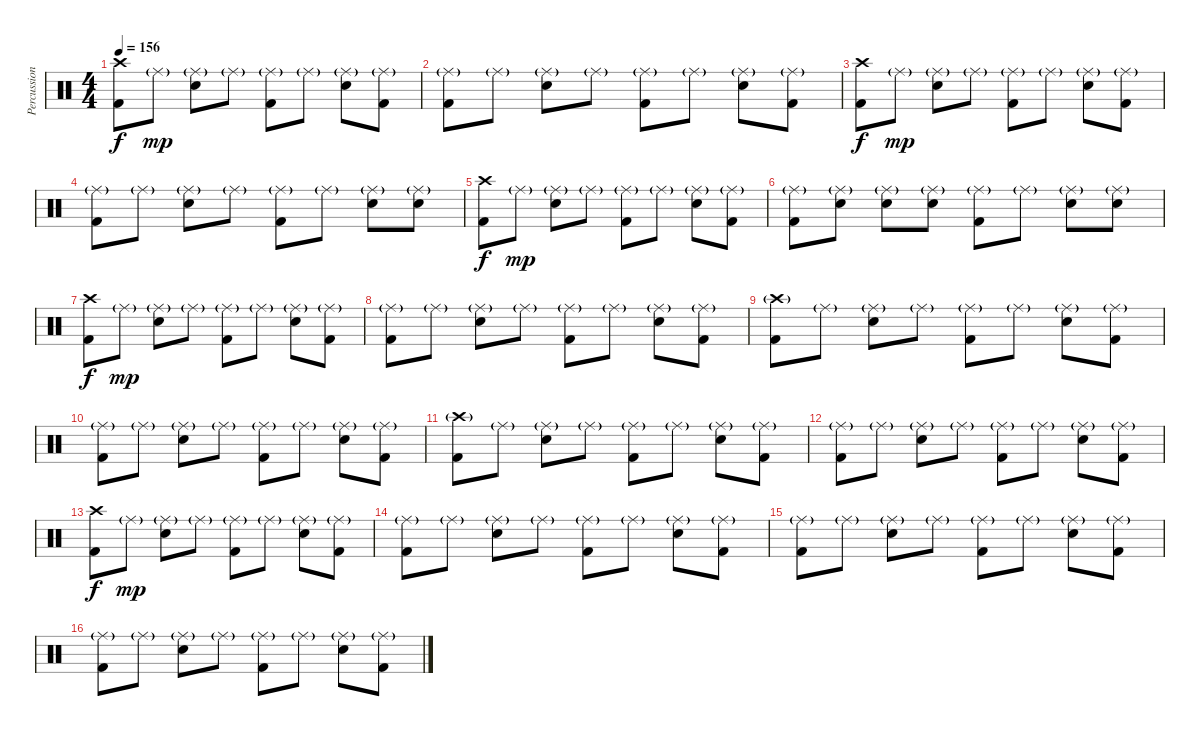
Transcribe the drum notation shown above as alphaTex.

\track ("Percussion" "Percussion") {instrument percussion}
\staff {score}
\articulation defaults
\ts (4 4)
\tempo 156
\clef neutral
\ks c
("Crash high (hit)" "Kick (hit) 2").8{dy f} "Ride (middle)"{g}.8{dy mp} ("Ride (middle)"{g} "Electric Snare (hit)").8 "Ride (middle)"{g}.8 ("Ride (middle)"{g} "Kick (hit) 2").8 "Ride (middle)"{g}.8 ("Ride (middle)"{g} "Electric Snare (hit)").8 ("Ride (middle)"{g} "Kick (hit) 2").8 |
("Ride (middle)"{g} "Kick (hit) 2").8 "Ride (middle)"{g}.8 ("Ride (middle)"{g} "Electric Snare (hit)").8 "Ride (middle)"{g}.8 ("Ride (middle)"{g} "Kick (hit) 2").8 "Ride (middle)"{g}.8 ("Ride (middle)"{g} "Electric Snare (hit)").8 ("Ride (middle)"{g} "Kick (hit) 2").8 |
("Crash high (hit)" "Kick (hit) 2").8{dy f} "Ride (middle)"{g}.8{dy mp} ("Ride (middle)"{g} "Electric Snare (hit)").8 "Ride (middle)"{g}.8 ("Ride (middle)"{g} "Kick (hit) 2").8 "Ride (middle)"{g}.8 ("Ride (middle)"{g} "Electric Snare (hit)").8 ("Ride (middle)"{g} "Kick (hit) 2").8 |
("Ride (middle)"{g} "Kick (hit) 2").8 "Ride (middle)"{g}.8 ("Ride (middle)"{g} "Electric Snare (hit)").8 "Ride (middle)"{g}.8 ("Ride (middle)"{g} "Kick (hit) 2").8 "Ride (middle)"{g}.8 ("Ride (middle)"{g} "Electric Snare (hit)").8 ("Ride (middle)"{g} "Electric Snare (hit)").8 |
("Crash high (hit)" "Kick (hit) 2").8{dy f} "Ride (middle)"{g}.8{dy mp} ("Ride (middle)"{g} "Electric Snare (hit)").8 "Ride (middle)"{g}.8 ("Ride (middle)"{g} "Kick (hit) 2").8 "Ride (middle)"{g}.8 ("Ride (middle)"{g} "Electric Snare (hit)").8 ("Ride (middle)"{g} "Kick (hit) 2").8 |
("Ride (middle)"{g} "Kick (hit) 2").8 ("Ride (middle)"{g} "Electric Snare (hit)").8 ("Ride (middle)"{g} "Electric Snare (hit)").8 ("Ride (middle)"{g} "Electric Snare (hit)").8 ("Ride (middle)"{g} "Kick (hit) 2").8 "Ride (middle)"{g}.8 ("Ride (middle)"{g} "Electric Snare (hit)").8 ("Ride (middle)"{g} "Electric Snare (hit)").8 |
("Crash high (hit)" "Kick (hit) 2").8{dy f} "Ride (middle)"{g}.8{dy mp} ("Ride (middle)"{g} "Electric Snare (hit)").8 "Ride (middle)"{g}.8 ("Ride (middle)"{g} "Kick (hit) 2").8 "Ride (middle)"{g}.8 ("Ride (middle)"{g} "Electric Snare (hit)").8 ("Ride (middle)"{g} "Kick (hit) 2").8 |
("Ride (middle)"{g} "Kick (hit) 2").8 "Ride (middle)"{g}.8 ("Ride (middle)"{g} "Electric Snare (hit)").8 "Ride (middle)"{g}.8 ("Ride (middle)"{g} "Kick (hit) 2").8 "Ride (middle)"{g}.8 ("Ride (middle)"{g} "Electric Snare (hit)").8 ("Ride (middle)"{g} "Kick (hit) 2").8 |
("Crash high (hit)"{g} "Kick (hit) 2").8 "Ride (middle)"{g}.8 ("Ride (middle)"{g} "Electric Snare (hit)").8 "Ride (middle)"{g}.8 ("Ride (middle)"{g} "Kick (hit) 2").8 "Ride (middle)"{g}.8 ("Ride (middle)"{g} "Electric Snare (hit)").8 ("Ride (middle)"{g} "Kick (hit) 2").8 |
("Ride (middle)"{g} "Kick (hit) 2").8 "Ride (middle)"{g}.8 ("Ride (middle)"{g} "Electric Snare (hit)").8 "Ride (middle)"{g}.8 ("Ride (middle)"{g} "Kick (hit) 2").8 "Ride (middle)"{g}.8 ("Ride (middle)"{g} "Electric Snare (hit)").8 ("Ride (middle)"{g} "Kick (hit) 2").8 |
("Crash high (hit)"{g} "Kick (hit) 2").8 "Ride (middle)"{g}.8 ("Ride (middle)"{g} "Electric Snare (hit)").8 "Ride (middle)"{g}.8 ("Ride (middle)"{g} "Kick (hit) 2").8 "Ride (middle)"{g}.8 ("Ride (middle)"{g} "Electric Snare (hit)").8 ("Ride (middle)"{g} "Kick (hit) 2").8 |
("Ride (middle)"{g} "Kick (hit) 2").8 "Ride (middle)"{g}.8 ("Ride (middle)"{g} "Electric Snare (hit)").8 "Ride (middle)"{g}.8 ("Ride (middle)"{g} "Kick (hit) 2").8 "Ride (middle)"{g}.8 ("Ride (middle)"{g} "Electric Snare (hit)").8 ("Ride (middle)"{g} "Kick (hit) 2").8 |
("Crash high (hit)" "Kick (hit) 2").8{dy f} "Ride (middle)"{g}.8{dy mp} ("Ride (middle)"{g} "Electric Snare (hit)").8 "Ride (middle)"{g}.8 ("Ride (middle)"{g} "Kick (hit) 2").8 "Ride (middle)"{g}.8 ("Ride (middle)"{g} "Electric Snare (hit)").8 ("Ride (middle)"{g} "Kick (hit) 2").8 |
("Ride (middle)"{g} "Kick (hit) 2").8 "Ride (middle)"{g}.8 ("Ride (middle)"{g} "Electric Snare (hit)").8 "Ride (middle)"{g}.8 ("Ride (middle)"{g} "Kick (hit) 2").8 "Ride (middle)"{g}.8 ("Ride (middle)"{g} "Electric Snare (hit)").8 ("Ride (middle)"{g} "Kick (hit) 2").8 |
("Ride (middle)"{g} "Kick (hit) 2").8 "Ride (middle)"{g}.8 ("Ride (middle)"{g} "Electric Snare (hit)").8 "Ride (middle)"{g}.8 ("Ride (middle)"{g} "Kick (hit) 2").8 "Ride (middle)"{g}.8 ("Ride (middle)"{g} "Electric Snare (hit)").8 ("Ride (middle)"{g} "Kick (hit) 2").8 |
("Ride (middle)"{g} "Kick (hit) 2").8 "Ride (middle)"{g}.8 ("Ride (middle)"{g} "Electric Snare (hit)").8 "Ride (middle)"{g}.8 ("Ride (middle)"{g} "Kick (hit) 2").8 "Ride (middle)"{g}.8 ("Ride (middle)"{g} "Electric Snare (hit)").8 ("Ride (middle)"{g} "Kick (hit) 2").8
